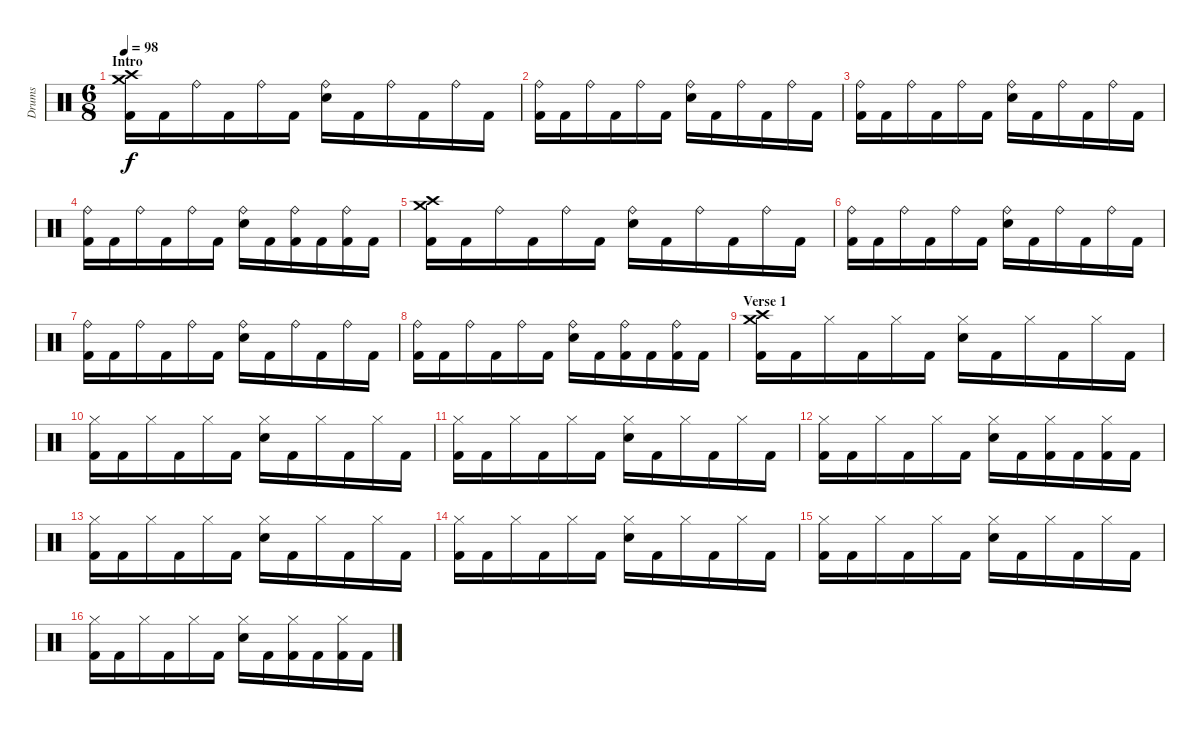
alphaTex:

\track ("Drums" "Drums") {instrument percussion}
\staff {score}
\articulation defaults
\ts (6 8)
\section ("" "Intro")
\tempo 98
\clef neutral
\ks c
("Crash high (hit)" "Crash medium (hit)" "Kick (hit) 2").16{dy f} "Kick (hit) 2".16 "Ride (bell)".16 "Kick (hit) 2".16 "Ride (bell)".16 "Kick (hit) 2".16 ("Ride (bell)" "Electric Snare (hit)").16 "Kick (hit) 2".16 "Ride (bell)".16 "Kick (hit) 2".16 "Ride (bell)".16 "Kick (hit) 2".16 |
("Ride (bell)" "Kick (hit) 2").16 "Kick (hit) 2".16 "Ride (bell)".16 "Kick (hit) 2".16 "Ride (bell)".16 "Kick (hit) 2".16 ("Ride (bell)" "Electric Snare (hit)").16 "Kick (hit) 2".16 "Ride (bell)".16 "Kick (hit) 2".16 "Ride (bell)".16 "Kick (hit) 2".16 |
("Ride (bell)" "Kick (hit) 2").16 "Kick (hit) 2".16 "Ride (bell)".16 "Kick (hit) 2".16 "Ride (bell)".16 "Kick (hit) 2".16 ("Ride (bell)" "Electric Snare (hit)").16 "Kick (hit) 2".16 "Ride (bell)".16 "Kick (hit) 2".16 "Ride (bell)".16 "Kick (hit) 2".16 |
("Ride (bell)" "Kick (hit) 2").16 "Kick (hit) 2".16 "Ride (bell)".16 "Kick (hit) 2".16 "Ride (bell)".16 "Kick (hit) 2".16 ("Ride (bell)" "Electric Snare (hit)").16 "Kick (hit) 2".16 ("Ride (bell)" "Kick (hit) 2").16 "Kick (hit) 2".16 ("Ride (bell)" "Kick (hit) 2").16 "Kick (hit) 2".16 |
("Crash high (hit)" "Crash medium (hit)" "Kick (hit) 2").16 "Kick (hit) 2".16 "Ride (bell)".16 "Kick (hit) 2".16 "Ride (bell)".16 "Kick (hit) 2".16 ("Ride (bell)" "Electric Snare (hit)").16 "Kick (hit) 2".16 "Ride (bell)".16 "Kick (hit) 2".16 "Ride (bell)".16 "Kick (hit) 2".16 |
("Ride (bell)" "Kick (hit) 2").16 "Kick (hit) 2".16 "Ride (bell)".16 "Kick (hit) 2".16 "Ride (bell)".16 "Kick (hit) 2".16 ("Ride (bell)" "Electric Snare (hit)").16 "Kick (hit) 2".16 "Ride (bell)".16 "Kick (hit) 2".16 "Ride (bell)".16 "Kick (hit) 2".16 |
("Ride (bell)" "Kick (hit) 2").16 "Kick (hit) 2".16 "Ride (bell)".16 "Kick (hit) 2".16 "Ride (bell)".16 "Kick (hit) 2".16 ("Ride (bell)" "Electric Snare (hit)").16 "Kick (hit) 2".16 "Ride (bell)".16 "Kick (hit) 2".16 "Ride (bell)".16 "Kick (hit) 2".16 |
("Ride (bell)" "Kick (hit) 2").16 "Kick (hit) 2".16 "Ride (bell)".16 "Kick (hit) 2".16 "Ride (bell)".16 "Kick (hit) 2".16 ("Ride (bell)" "Electric Snare (hit)").16 "Kick (hit) 2".16 ("Ride (bell)" "Kick (hit) 2").16 "Kick (hit) 2".16 ("Ride (bell)" "Kick (hit) 2").16 "Kick (hit) 2".16 |
\section ("" "Verse 1")
("Crash high (hit)" "Crash medium (hit)" "Kick (hit) 2").16 "Kick (hit) 2".16 "Hi-Hat (closed)".16 "Kick (hit) 2".16 "Hi-Hat (closed)".16 "Kick (hit) 2".16 ("Hi-Hat (closed)" "Electric Snare (hit)").16 "Kick (hit) 2".16 "Hi-Hat (closed)".16 "Kick (hit) 2".16 "Hi-Hat (closed)".16 "Kick (hit) 2".16 |
("Hi-Hat (closed)" "Kick (hit) 2").16 "Kick (hit) 2".16 "Hi-Hat (closed)".16 "Kick (hit) 2".16 "Hi-Hat (closed)".16 "Kick (hit) 2".16 ("Hi-Hat (closed)" "Electric Snare (hit)").16 "Kick (hit) 2".16 "Hi-Hat (closed)".16 "Kick (hit) 2".16 "Hi-Hat (closed)".16 "Kick (hit) 2".16 |
("Hi-Hat (closed)" "Kick (hit) 2").16 "Kick (hit) 2".16 "Hi-Hat (closed)".16 "Kick (hit) 2".16 "Hi-Hat (closed)".16 "Kick (hit) 2".16 ("Hi-Hat (closed)" "Electric Snare (hit)").16 "Kick (hit) 2".16 "Hi-Hat (closed)".16 "Kick (hit) 2".16 "Hi-Hat (closed)".16 "Kick (hit) 2".16 |
("Hi-Hat (closed)" "Kick (hit) 2").16 "Kick (hit) 2".16 "Hi-Hat (closed)".16 "Kick (hit) 2".16 "Hi-Hat (closed)".16 "Kick (hit) 2".16 ("Hi-Hat (closed)" "Electric Snare (hit)").16 "Kick (hit) 2".16 ("Hi-Hat (closed)" "Kick (hit) 2").16 "Kick (hit) 2".16 ("Hi-Hat (closed)" "Kick (hit) 2").16 "Kick (hit) 2".16 |
("Hi-Hat (closed)" "Kick (hit) 2").16 "Kick (hit) 2".16 "Hi-Hat (closed)".16 "Kick (hit) 2".16 "Hi-Hat (closed)".16 "Kick (hit) 2".16 ("Hi-Hat (closed)" "Electric Snare (hit)").16 "Kick (hit) 2".16 "Hi-Hat (closed)".16 "Kick (hit) 2".16 "Hi-Hat (closed)".16 "Kick (hit) 2".16 |
("Hi-Hat (closed)" "Kick (hit) 2").16 "Kick (hit) 2".16 "Hi-Hat (closed)".16 "Kick (hit) 2".16 "Hi-Hat (closed)".16 "Kick (hit) 2".16 ("Hi-Hat (closed)" "Electric Snare (hit)").16 "Kick (hit) 2".16 "Hi-Hat (closed)".16 "Kick (hit) 2".16 "Hi-Hat (closed)".16 "Kick (hit) 2".16 |
("Hi-Hat (closed)" "Kick (hit) 2").16 "Kick (hit) 2".16 "Hi-Hat (closed)".16 "Kick (hit) 2".16 "Hi-Hat (closed)".16 "Kick (hit) 2".16 ("Hi-Hat (closed)" "Electric Snare (hit)").16 "Kick (hit) 2".16 "Hi-Hat (closed)".16 "Kick (hit) 2".16 "Hi-Hat (closed)".16 "Kick (hit) 2".16 |
("Hi-Hat (closed)" "Kick (hit) 2").16 "Kick (hit) 2".16 "Hi-Hat (closed)".16 "Kick (hit) 2".16 "Hi-Hat (closed)".16 "Kick (hit) 2".16 ("Hi-Hat (closed)" "Electric Snare (hit)").16 "Kick (hit) 2".16 ("Hi-Hat (closed)" "Kick (hit) 2").16 "Kick (hit) 2".16 ("Hi-Hat (closed)" "Kick (hit) 2").16 "Kick (hit) 2".16
